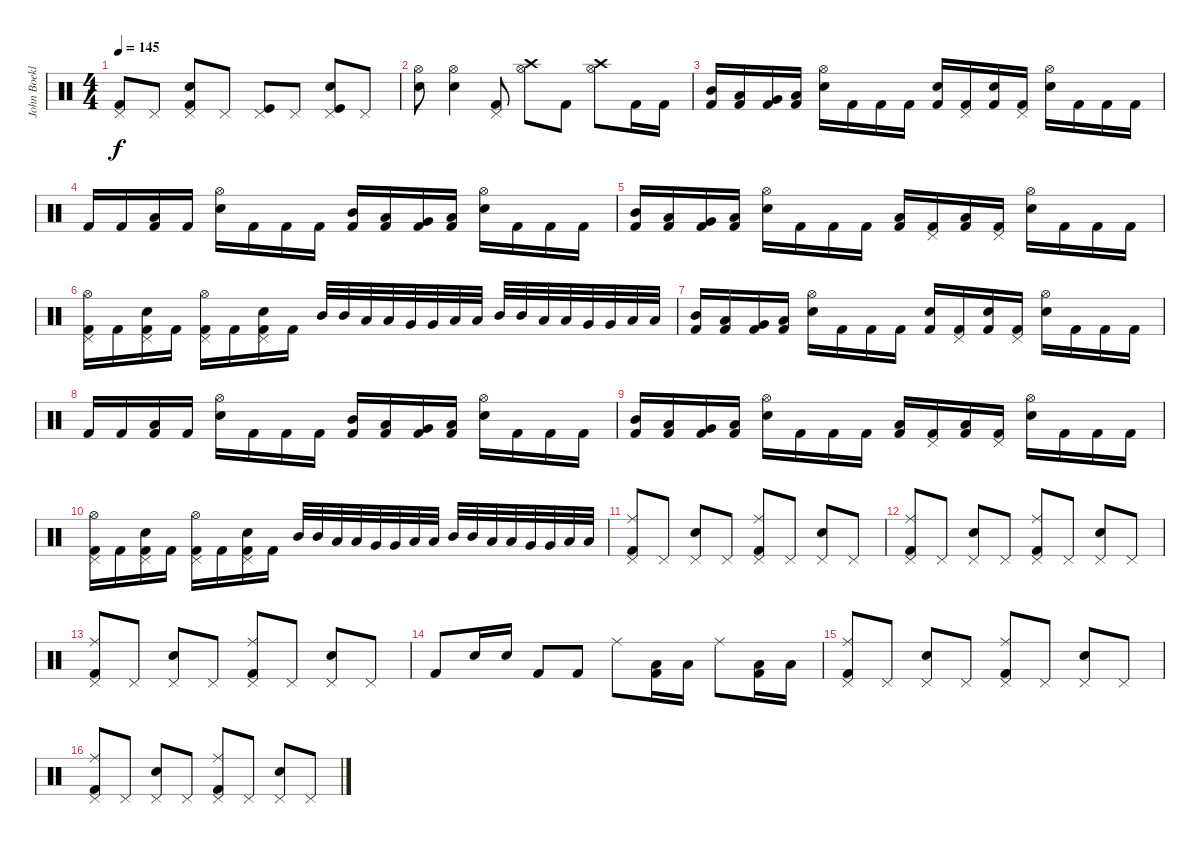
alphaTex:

\track ("John Boeklin" "John Boekl") {instrument percussion}
\staff {score}
\articulation defaults
\ts (4 4)
\tempo 145
\clef neutral
\ks c
("Pedal Hi-Hat (hit)" "Kick (hit) 2").8{dy f} "Pedal Hi-Hat (hit)".8 ("Pedal Hi-Hat (hit)" "Electric Snare (hit)" "Kick (hit) 2").8 "Pedal Hi-Hat (hit)".8 ("Pedal Hi-Hat (hit)" "Kick (hit)").8 "Pedal Hi-Hat (hit)".8 ("Pedal Hi-Hat (hit)" "Electric Snare (hit)" "Kick (hit)").8 "Pedal Hi-Hat (hit)".8 |
("Hi-Hat (open)" "Electric Snare (hit)").8 ("Hi-Hat (open)" "Electric Snare (hit)").4 ("Pedal Hi-Hat (hit)" "Kick (hit) 2").8 ("Hi-Hat (open)" "Crash high (hit)").8 "Kick (hit) 2".8 ("Hi-Hat (open)" "Crash high (hit)").8 "Kick (hit) 2".16 "Kick (hit) 2".16 |
("Mid Tom (hit)" "Kick (hit) 2").16 ("Low Tom (hit)" "Kick (hit) 2").16 ("Very Low Tom (hit)" "Kick (hit) 2").16 ("Low Floor Tom (hit)" "Kick (hit) 2").16 ("Electric Snare (hit)" "Hi-Hat (open)").16 "Kick (hit) 2".16 "Kick (hit) 2".16 "Kick (hit) 2".16 ("Electric Snare (hit)" "Kick (hit) 2").16 ("Pedal Hi-Hat (hit)" "Kick (hit) 2").16 ("Electric Snare (hit)" "Kick (hit) 2").16 ("Pedal Hi-Hat (hit)" "Kick (hit) 2").16 ("Electric Snare (hit)" "Hi-Hat (open)").16 "Kick (hit) 2".16 "Kick (hit) 2".16 "Kick (hit) 2".16 |
"Kick (hit) 2".16 "Kick (hit) 2".16 ("Low Floor Tom (hit)" "Kick (hit) 2").16 "Kick (hit) 2".16 ("Electric Snare (hit)" "Hi-Hat (open)").16 "Kick (hit) 2".16 "Kick (hit) 2".16 "Kick (hit) 2".16 ("Mid Tom (hit)" "Kick (hit) 2").16 ("Low Tom (hit)" "Kick (hit) 2").16 ("Very Low Tom (hit)" "Kick (hit) 2").16 ("Low Floor Tom (hit)" "Kick (hit) 2").16 ("Electric Snare (hit)" "Hi-Hat (open)").16 "Kick (hit) 2".16 "Kick (hit) 2".16 "Kick (hit) 2".16 |
("Mid Tom (hit)" "Kick (hit) 2").16 ("Low Tom (hit)" "Kick (hit) 2").16 ("Very Low Tom (hit)" "Kick (hit) 2").16 ("Low Floor Tom (hit)" "Kick (hit) 2").16 ("Electric Snare (hit)" "Hi-Hat (open)").16 "Kick (hit) 2".16 "Kick (hit) 2".16 "Kick (hit) 2".16 ("Low Floor Tom (hit)" "Kick (hit) 2").16 ("Pedal Hi-Hat (hit)" "Kick (hit) 2").16 ("Low Floor Tom (hit)" "Kick (hit) 2").16 ("Pedal Hi-Hat (hit)" "Kick (hit) 2").16 ("Electric Snare (hit)" "Hi-Hat (open)").16 "Kick (hit) 2".16 "Kick (hit) 2".16 "Kick (hit) 2".16 |
("Hi-Hat (open)" "Pedal Hi-Hat (hit)" "Kick (hit) 2").16 "Kick (hit) 2".16 ("Pedal Hi-Hat (hit)" "Electric Snare (hit)" "Kick (hit) 2").16 "Kick (hit) 2".16 ("Hi-Hat (open)" "Pedal Hi-Hat (hit)" "Kick (hit) 2").16 "Kick (hit) 2".16 ("Pedal Hi-Hat (hit)" "Electric Snare (hit)" "Kick (hit) 2").16 "Kick (hit) 2".16 "Mid Tom (hit)".32 "Mid Tom (hit)".32 "Low Tom (hit)".32 "Low Tom (hit)".32 "Very Low Tom (hit)".32 "Very Low Tom (hit)".32 "Low Floor Tom (hit)".32 "Low Floor Tom (hit)".32 "Mid Tom (hit)".32 "Mid Tom (hit)".32 "Low Tom (hit)".32 "Low Tom (hit)".32 "Very Low Tom (hit)".32 "Very Low Tom (hit)".32 "Low Floor Tom (hit)".32 "Low Floor Tom (hit)".32 |
("Mid Tom (hit)" "Kick (hit) 2").16 ("Low Tom (hit)" "Kick (hit) 2").16 ("Very Low Tom (hit)" "Kick (hit) 2").16 ("Low Floor Tom (hit)" "Kick (hit) 2").16 ("Electric Snare (hit)" "Hi-Hat (open)").16 "Kick (hit) 2".16 "Kick (hit) 2".16 "Kick (hit) 2".16 ("Electric Snare (hit)" "Kick (hit) 2").16 ("Pedal Hi-Hat (hit)" "Kick (hit) 2").16 ("Electric Snare (hit)" "Kick (hit) 2").16 ("Pedal Hi-Hat (hit)" "Kick (hit) 2").16 ("Electric Snare (hit)" "Hi-Hat (open)").16 "Kick (hit) 2".16 "Kick (hit) 2".16 "Kick (hit) 2".16 |
"Kick (hit) 2".16 "Kick (hit) 2".16 ("Low Floor Tom (hit)" "Kick (hit) 2").16 "Kick (hit) 2".16 ("Electric Snare (hit)" "Hi-Hat (open)").16 "Kick (hit) 2".16 "Kick (hit) 2".16 "Kick (hit) 2".16 ("Mid Tom (hit)" "Kick (hit) 2").16 ("Low Tom (hit)" "Kick (hit) 2").16 ("Very Low Tom (hit)" "Kick (hit) 2").16 ("Low Floor Tom (hit)" "Kick (hit) 2").16 ("Electric Snare (hit)" "Hi-Hat (open)").16 "Kick (hit) 2".16 "Kick (hit) 2".16 "Kick (hit) 2".16 |
("Mid Tom (hit)" "Kick (hit) 2").16 ("Low Tom (hit)" "Kick (hit) 2").16 ("Very Low Tom (hit)" "Kick (hit) 2").16 ("Low Floor Tom (hit)" "Kick (hit) 2").16 ("Electric Snare (hit)" "Hi-Hat (open)").16 "Kick (hit) 2".16 "Kick (hit) 2".16 "Kick (hit) 2".16 ("Low Floor Tom (hit)" "Kick (hit) 2").16 ("Pedal Hi-Hat (hit)" "Kick (hit) 2").16 ("Low Floor Tom (hit)" "Kick (hit) 2").16 ("Pedal Hi-Hat (hit)" "Kick (hit) 2").16 ("Electric Snare (hit)" "Hi-Hat (open)").16 "Kick (hit) 2".16 "Kick (hit) 2".16 "Kick (hit) 2".16 |
("Hi-Hat (open)" "Pedal Hi-Hat (hit)" "Kick (hit) 2").16 "Kick (hit) 2".16 ("Pedal Hi-Hat (hit)" "Electric Snare (hit)" "Kick (hit) 2").16 "Kick (hit) 2".16 ("Hi-Hat (open)" "Pedal Hi-Hat (hit)" "Kick (hit) 2").16 "Kick (hit) 2".16 ("Pedal Hi-Hat (hit)" "Electric Snare (hit)" "Kick (hit) 2").16 "Kick (hit) 2".16 "Mid Tom (hit)".32 "Mid Tom (hit)".32 "Low Tom (hit)".32 "Low Tom (hit)".32 "Very Low Tom (hit)".32 "Very Low Tom (hit)".32 "Low Floor Tom (hit)".32 "Low Floor Tom (hit)".32 "Mid Tom (hit)".32 "Mid Tom (hit)".32 "Low Tom (hit)".32 "Low Tom (hit)".32 "Very Low Tom (hit)".32 "Very Low Tom (hit)".32 "Low Floor Tom (hit)".32 "Low Floor Tom (hit)".32 |
("Pedal Hi-Hat (hit)" "Ride (middle)" "Kick (hit) 2").8 "Pedal Hi-Hat (hit)".8 ("Pedal Hi-Hat (hit)" "Electric Snare (hit)").8 "Pedal Hi-Hat (hit)".8 ("Pedal Hi-Hat (hit)" "Ride (middle)" "Kick (hit) 2").8 "Pedal Hi-Hat (hit)".8 ("Pedal Hi-Hat (hit)" "Electric Snare (hit)").8 "Pedal Hi-Hat (hit)".8 |
("Pedal Hi-Hat (hit)" "Ride (middle)" "Kick (hit) 2").8 "Pedal Hi-Hat (hit)".8 ("Pedal Hi-Hat (hit)" "Electric Snare (hit)").8 "Pedal Hi-Hat (hit)".8 ("Pedal Hi-Hat (hit)" "Ride (middle)" "Kick (hit) 2").8 "Pedal Hi-Hat (hit)".8 ("Pedal Hi-Hat (hit)" "Electric Snare (hit)").8 "Pedal Hi-Hat (hit)".8 |
("Pedal Hi-Hat (hit)" "Ride (middle)" "Kick (hit) 2").8 "Pedal Hi-Hat (hit)".8 ("Pedal Hi-Hat (hit)" "Electric Snare (hit)").8 "Pedal Hi-Hat (hit)".8 ("Pedal Hi-Hat (hit)" "Ride (middle)" "Kick (hit) 2").8 "Pedal Hi-Hat (hit)".8 ("Pedal Hi-Hat (hit)" "Electric Snare (hit)").8 "Pedal Hi-Hat (hit)".8 |
"Kick (hit) 2".8 "Electric Snare (hit)".16 "Electric Snare (hit)".16 "Kick (hit) 2".8 "Kick (hit) 2".8 "Ride (middle)".8 ("Low Floor Tom (hit)" "Kick (hit) 2").16 "Low Floor Tom (hit)".16 "Ride (middle)".8 ("Low Floor Tom (hit)" "Kick (hit) 2").16 "Low Floor Tom (hit)".16 |
("Pedal Hi-Hat (hit)" "Ride (middle)" "Kick (hit) 2").8 "Pedal Hi-Hat (hit)".8 ("Pedal Hi-Hat (hit)" "Electric Snare (hit)").8 "Pedal Hi-Hat (hit)".8 ("Pedal Hi-Hat (hit)" "Ride (middle)" "Kick (hit) 2").8 "Pedal Hi-Hat (hit)".8 ("Pedal Hi-Hat (hit)" "Electric Snare (hit)").8 "Pedal Hi-Hat (hit)".8 |
("Pedal Hi-Hat (hit)" "Ride (middle)" "Kick (hit) 2").8 "Pedal Hi-Hat (hit)".8 ("Pedal Hi-Hat (hit)" "Electric Snare (hit)").8 "Pedal Hi-Hat (hit)".8 ("Pedal Hi-Hat (hit)" "Ride (middle)" "Kick (hit) 2").8 "Pedal Hi-Hat (hit)".8 ("Pedal Hi-Hat (hit)" "Electric Snare (hit)").8 "Pedal Hi-Hat (hit)".8
